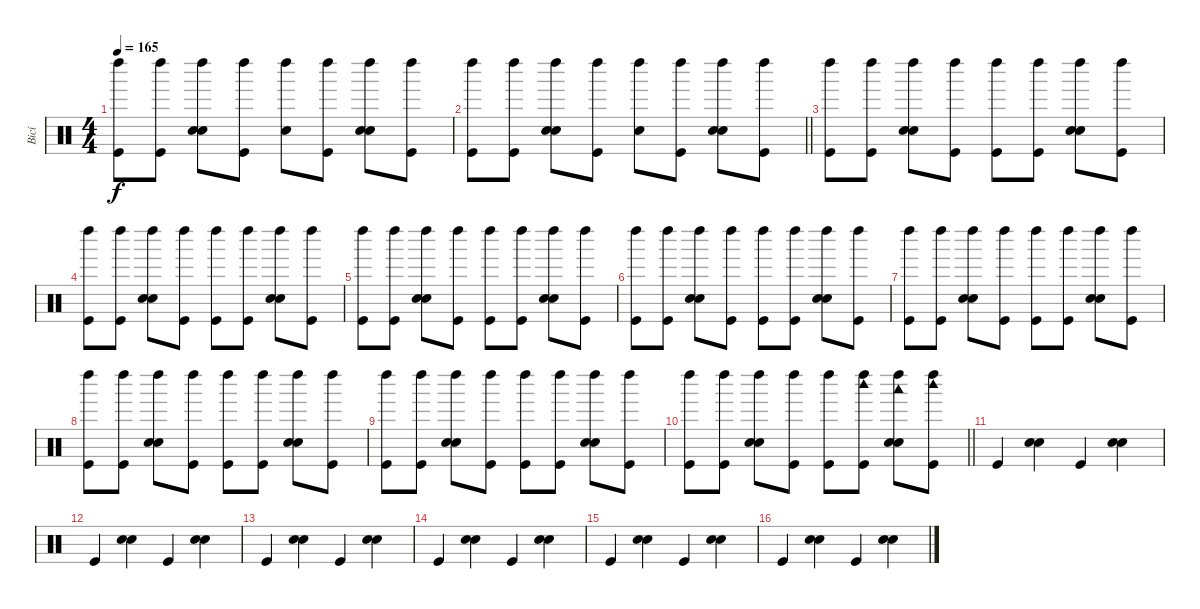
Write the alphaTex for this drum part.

\track ("Bicí" "Bicí") {instrument percussion}
\staff {score}
\articulation defaults
\ts (4 4)
\tempo 165
\clef neutral
\ks c
("Left Maraca (hit)" "Kick (hit)").8{dy f} ("Left Maraca (hit)" "Kick (hit)").8 ("Left Maraca (hit)" "Hand Clap (hit)" "Electric Snare (hit)").8 ("Left Maraca (hit)" "Kick (hit)").8 ("Left Maraca (hit)" "Snare (hit)").8 ("Left Maraca (hit)" "Kick (hit)").8 ("Left Maraca (hit)" "Hand Clap (hit)" "Electric Snare (hit)").8 ("Left Maraca (hit)" "Kick (hit)").8 |
\barLineRight lightlight
("Left Maraca (hit)" "Kick (hit)").8 ("Left Maraca (hit)" "Kick (hit)").8 ("Left Maraca (hit)" "Hand Clap (hit)" "Electric Snare (hit)").8 ("Left Maraca (hit)" "Kick (hit)").8 ("Left Maraca (hit)" "Snare (hit)").8 ("Left Maraca (hit)" "Kick (hit)").8 ("Left Maraca (hit)" "Hand Clap (hit)" "Electric Snare (hit)").8 ("Left Maraca (hit)" "Kick (hit)").8 |
("Left Maraca (hit)" "Kick (hit)").8 ("Left Maraca (hit)" "Kick (hit)").8 ("Left Maraca (hit)" "Hand Clap (hit)" "Electric Snare (hit)").8 ("Left Maraca (hit)" "Kick (hit)").8 ("Left Maraca (hit)" "Kick (hit)").8 ("Left Maraca (hit)" "Kick (hit)").8 ("Left Maraca (hit)" "Hand Clap (hit)" "Electric Snare (hit)").8 ("Left Maraca (hit)" "Kick (hit)").8 |
("Left Maraca (hit)" "Kick (hit)").8 ("Left Maraca (hit)" "Kick (hit)").8 ("Left Maraca (hit)" "Hand Clap (hit)" "Electric Snare (hit)").8 ("Left Maraca (hit)" "Kick (hit)").8 ("Left Maraca (hit)" "Kick (hit)").8 ("Left Maraca (hit)" "Kick (hit)").8 ("Left Maraca (hit)" "Hand Clap (hit)" "Electric Snare (hit)").8 ("Left Maraca (hit)" "Kick (hit)").8 |
("Left Maraca (hit)" "Kick (hit)").8 ("Left Maraca (hit)" "Kick (hit)").8 ("Left Maraca (hit)" "Hand Clap (hit)" "Electric Snare (hit)").8 ("Left Maraca (hit)" "Kick (hit)").8 ("Left Maraca (hit)" "Kick (hit)").8 ("Left Maraca (hit)" "Kick (hit)").8 ("Left Maraca (hit)" "Hand Clap (hit)" "Electric Snare (hit)").8 ("Left Maraca (hit)" "Kick (hit)").8 |
("Left Maraca (hit)" "Kick (hit)").8 ("Left Maraca (hit)" "Kick (hit)").8 ("Left Maraca (hit)" "Hand Clap (hit)" "Electric Snare (hit)").8 ("Left Maraca (hit)" "Kick (hit)").8 ("Left Maraca (hit)" "Kick (hit)").8 ("Left Maraca (hit)" "Kick (hit)").8 ("Left Maraca (hit)" "Hand Clap (hit)" "Electric Snare (hit)").8 ("Left Maraca (hit)" "Kick (hit)").8 |
("Left Maraca (hit)" "Kick (hit)").8 ("Left Maraca (hit)" "Kick (hit)").8 ("Left Maraca (hit)" "Hand Clap (hit)" "Electric Snare (hit)").8 ("Left Maraca (hit)" "Kick (hit)").8 ("Left Maraca (hit)" "Kick (hit)").8 ("Left Maraca (hit)" "Kick (hit)").8 ("Left Maraca (hit)" "Hand Clap (hit)" "Electric Snare (hit)").8 ("Left Maraca (hit)" "Kick (hit)").8 |
("Left Maraca (hit)" "Kick (hit)").8 ("Left Maraca (hit)" "Kick (hit)").8 ("Left Maraca (hit)" "Hand Clap (hit)" "Electric Snare (hit)").8 ("Left Maraca (hit)" "Kick (hit)").8 ("Left Maraca (hit)" "Kick (hit)").8 ("Left Maraca (hit)" "Kick (hit)").8 ("Left Maraca (hit)" "Hand Clap (hit)" "Electric Snare (hit)").8 ("Left Maraca (hit)" "Kick (hit)").8 |
("Left Maraca (hit)" "Kick (hit)").8 ("Left Maraca (hit)" "Kick (hit)").8 ("Left Maraca (hit)" "Hand Clap (hit)" "Electric Snare (hit)").8 ("Left Maraca (hit)" "Kick (hit)").8 ("Left Maraca (hit)" "Kick (hit)").8 ("Left Maraca (hit)" "Kick (hit)").8 ("Left Maraca (hit)" "Hand Clap (hit)" "Electric Snare (hit)").8 ("Left Maraca (hit)" "Kick (hit)").8 |
\barLineRight lightlight
("Left Maraca (hit)" "Kick (hit)").8 ("Left Maraca (hit)" "Kick (hit)").8 ("Left Maraca (hit)" "Hand Clap (hit)" "Electric Snare (hit)").8 ("Left Maraca (hit)" "Kick (hit)").8 ("Left Maraca (hit)" "Kick (hit)").8 ("Woodblock high (hit)" "Left Maraca (hit)" "Kick (hit)").8 ("Woodblock low (hit)" "Left Maraca (hit)" "Hand Clap (hit)" "Electric Snare (hit)").8 ("Woodblock high (hit)" "Left Maraca (hit)" "Kick (hit)").8 |
"Kick (hit)".4 ("Hand Clap (hit)" "Electric Snare (hit)").4 "Kick (hit)".4 ("Hand Clap (hit)" "Electric Snare (hit)").4 |
"Kick (hit)".4 ("Hand Clap (hit)" "Electric Snare (hit)").4 "Kick (hit)".4 ("Hand Clap (hit)" "Electric Snare (hit)").4 |
"Kick (hit)".4 ("Hand Clap (hit)" "Electric Snare (hit)").4 "Kick (hit)".4 ("Hand Clap (hit)" "Electric Snare (hit)").4 |
"Kick (hit)".4 ("Hand Clap (hit)" "Electric Snare (hit)").4 "Kick (hit)".4 ("Hand Clap (hit)" "Electric Snare (hit)").4 |
"Kick (hit)".4 ("Hand Clap (hit)" "Electric Snare (hit)").4 "Kick (hit)".4 ("Hand Clap (hit)" "Electric Snare (hit)").4 |
"Kick (hit)".4 ("Hand Clap (hit)" "Electric Snare (hit)").4 "Kick (hit)".4 ("Hand Clap (hit)" "Electric Snare (hit)").4
